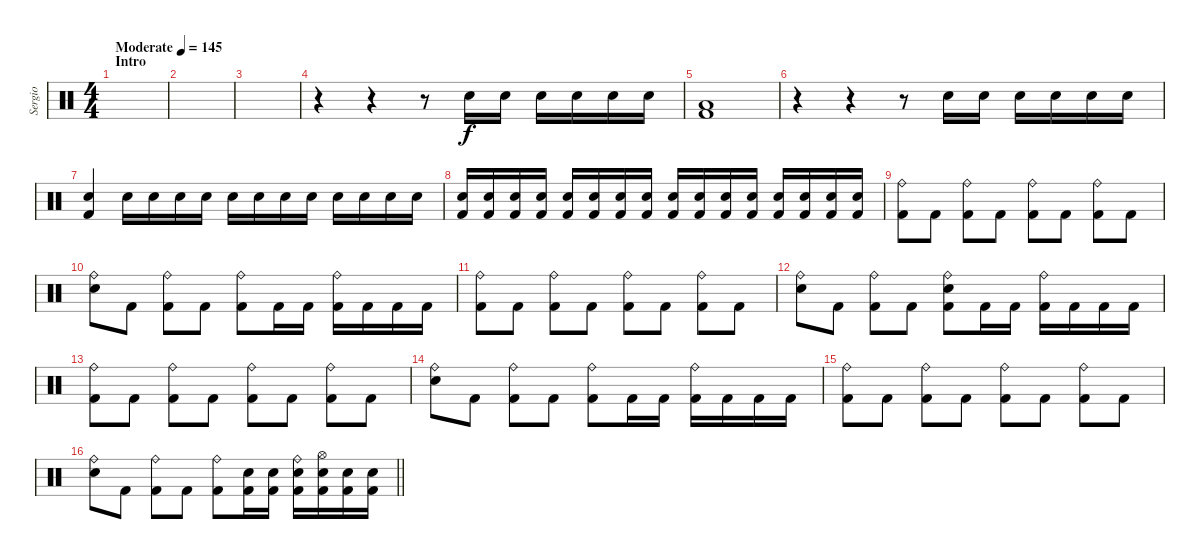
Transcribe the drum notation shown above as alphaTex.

\track ("Sergio" "Sergio") {instrument percussion}
\staff {score}
\articulation defaults
\ts (4 4)
\section ("" "Intro")
\tempo (145 "Moderate")
\clef neutral
\ks c
|
|
|
r.4 r.4 r.8 "Electric Snare (hit)".16 "Electric Snare (hit)".16 "Electric Snare (hit)".16 "Electric Snare (hit)".16 "Electric Snare (hit)".16 "Electric Snare (hit)".16 |
("Low Floor Tom (hit)" "Kick (hit) 2").1 |
r.4 r.4 r.8 "Electric Snare (hit)".16 "Electric Snare (hit)".16 "Electric Snare (hit)".16 "Electric Snare (hit)".16 "Electric Snare (hit)".16 "Electric Snare (hit)".16 |
("Electric Snare (hit)" "Kick (hit) 2").4 "Electric Snare (hit)".16 "Electric Snare (hit)".16 "Electric Snare (hit)".16 "Electric Snare (hit)".16 "Electric Snare (hit)".16 "Electric Snare (hit)".16 "Electric Snare (hit)".16 "Electric Snare (hit)".16 "Electric Snare (hit)".16 "Electric Snare (hit)".16 "Electric Snare (hit)".16 "Electric Snare (hit)".16 |
("Electric Snare (hit)" "Kick (hit) 2").16 ("Electric Snare (hit)" "Kick (hit) 2").16 ("Electric Snare (hit)" "Kick (hit) 2").16 ("Electric Snare (hit)" "Kick (hit) 2").16 ("Electric Snare (hit)" "Kick (hit) 2").16 ("Electric Snare (hit)" "Kick (hit) 2").16 ("Electric Snare (hit)" "Kick (hit) 2").16 ("Electric Snare (hit)" "Kick (hit) 2").16 ("Electric Snare (hit)" "Kick (hit) 2").16 ("Electric Snare (hit)" "Kick (hit) 2").16 ("Electric Snare (hit)" "Kick (hit) 2").16 ("Electric Snare (hit)" "Kick (hit) 2").16 ("Electric Snare (hit)" "Kick (hit) 2").16 ("Electric Snare (hit)" "Kick (hit) 2").16 ("Electric Snare (hit)" "Kick (hit) 2").16 ("Electric Snare (hit)" "Kick (hit) 2").16 |
("Ride (bell)" "Kick (hit) 2").8 "Kick (hit) 2".8 ("Ride (bell)" "Kick (hit) 2").8 "Kick (hit) 2".8 ("Ride (bell)" "Kick (hit) 2").8 "Kick (hit) 2".8 ("Ride (bell)" "Kick (hit) 2").8 "Kick (hit) 2".8 |
("Ride (bell)" "Electric Snare (hit)").8 "Kick (hit) 2".8 ("Ride (bell)" "Kick (hit) 2").8 "Kick (hit) 2".8 ("Ride (bell)" "Kick (hit) 2").8 "Kick (hit) 2".16 "Kick (hit) 2".16 ("Ride (bell)" "Kick (hit) 2").16 "Kick (hit) 2".16 "Kick (hit) 2".16 "Kick (hit) 2".16 |
("Ride (bell)" "Kick (hit) 2").8 "Kick (hit) 2".8 ("Ride (bell)" "Kick (hit) 2").8 "Kick (hit) 2".8 ("Ride (bell)" "Kick (hit) 2").8 "Kick (hit) 2".8 ("Ride (bell)" "Kick (hit) 2").8 "Kick (hit) 2".8 |
("Ride (bell)" "Electric Snare (hit)").8 "Kick (hit) 2".8 ("Ride (bell)" "Kick (hit) 2").8 "Kick (hit) 2".8 ("Ride (bell)" "Electric Snare (hit)" "Kick (hit) 2").8 "Kick (hit) 2".16 "Kick (hit) 2".16 ("Ride (bell)" "Kick (hit) 2").16 "Kick (hit) 2".16 "Kick (hit) 2".16 "Kick (hit) 2".16 |
("Ride (bell)" "Kick (hit) 2").8 "Kick (hit) 2".8 ("Ride (bell)" "Kick (hit) 2").8 "Kick (hit) 2".8 ("Ride (bell)" "Kick (hit) 2").8 "Kick (hit) 2".8 ("Ride (bell)" "Kick (hit) 2").8 "Kick (hit) 2".8 |
("Ride (bell)" "Electric Snare (hit)").8 "Kick (hit) 2".8 ("Ride (bell)" "Kick (hit) 2").8 "Kick (hit) 2".8 ("Ride (bell)" "Kick (hit) 2").8 "Kick (hit) 2".16 "Kick (hit) 2".16 ("Ride (bell)" "Kick (hit) 2").16 "Kick (hit) 2".16 "Kick (hit) 2".16 "Kick (hit) 2".16 |
("Ride (bell)" "Kick (hit) 2").8 "Kick (hit) 2".8 ("Ride (bell)" "Kick (hit) 2").8 "Kick (hit) 2".8 ("Ride (bell)" "Kick (hit) 2").8 "Kick (hit) 2".8 ("Ride (bell)" "Kick (hit) 2").8 "Kick (hit) 2".8 |
\barLineRight lightlight
("Ride (bell)" "Electric Snare (hit)").8 "Kick (hit) 2".8 ("Ride (bell)" "Kick (hit) 2").8 "Kick (hit) 2".8 ("Ride (bell)" "Kick (hit) 2").8 ("Electric Snare (hit)" "Kick (hit) 2").16 ("Electric Snare (hit)" "Kick (hit) 2").16 ("Ride (bell)" "Electric Snare (hit)" "Kick (hit) 2").16 ("Hi-Hat (open)" "Electric Snare (hit)" "Kick (hit) 2").16 ("Electric Snare (hit)" "Kick (hit) 2").16 ("Electric Snare (hit)" "Kick (hit) 2").16
